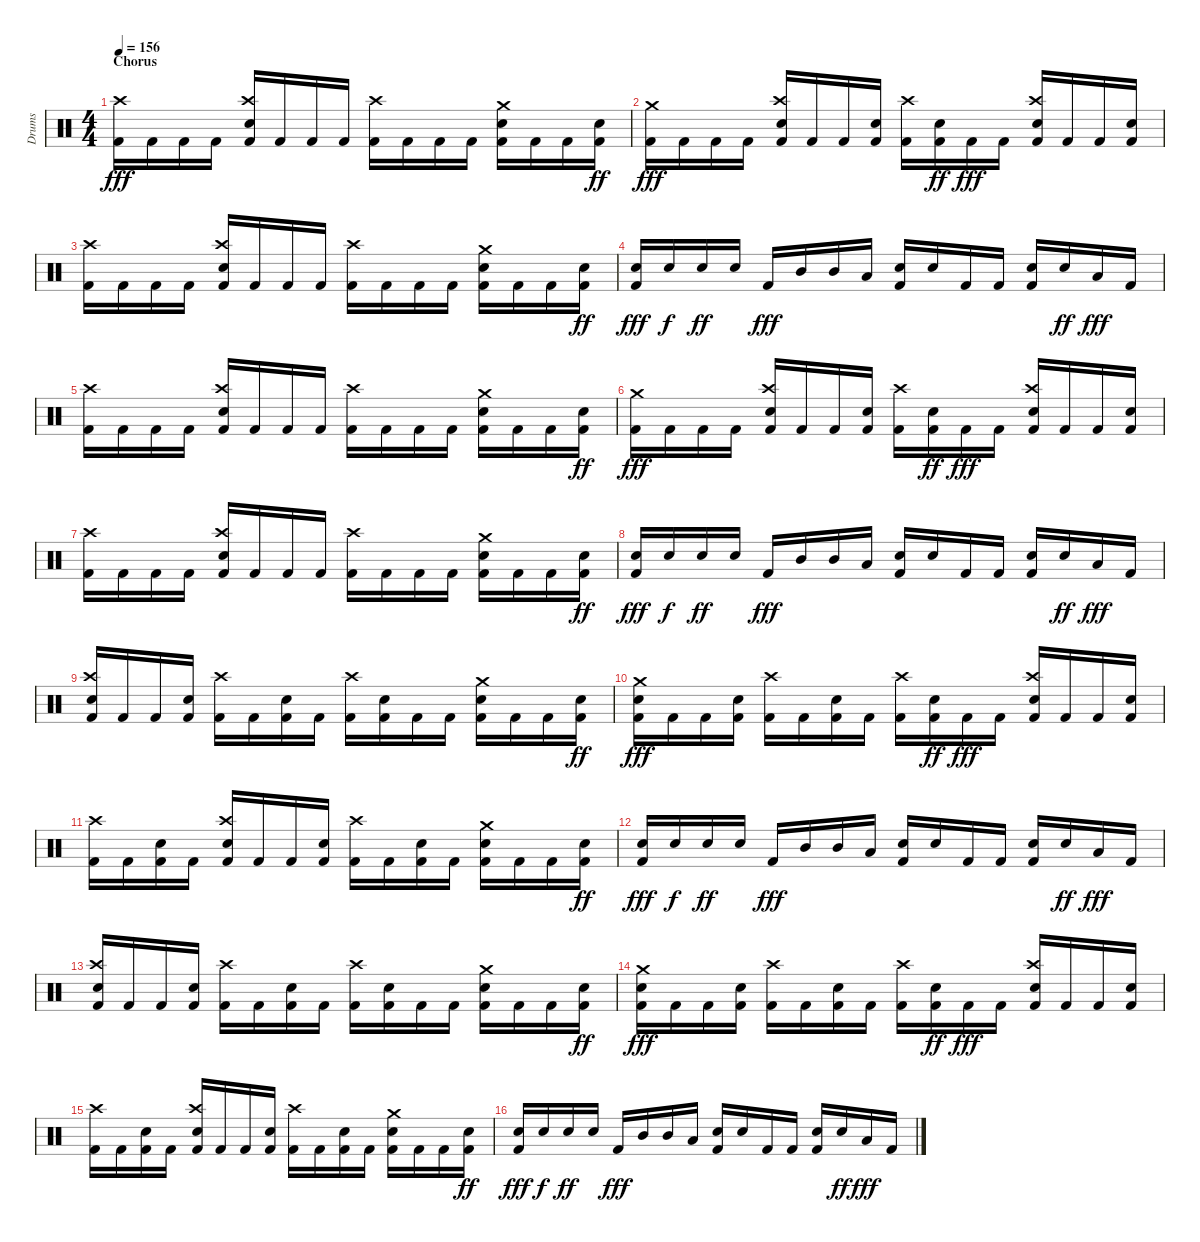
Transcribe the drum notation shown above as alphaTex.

\track ("Drums" "Drums") {instrument percussion}
\staff {score}
\articulation defaults
\ts (4 4)
\section ("" "Chorus")
\tempo 156
\clef neutral
\ks c
("Kick (hit) 2" "Crash high (hit)").16{dy fff} "Kick (hit) 2".16 "Kick (hit) 2".16 "Kick (hit) 2".16 ("Kick (hit) 2" "Snare (hit) 2" "Crash high (hit)").16 "Kick (hit) 2".16 "Kick (hit) 2".16 "Kick (hit) 2".16 ("Kick (hit) 2" "Crash high (hit)").16 "Kick (hit) 2".16 "Kick (hit) 2".16 "Kick (hit) 2".16 ("Kick (hit) 2" "Snare (hit) 2" "Crash medium (hit)").16 "Kick (hit) 2".16 "Kick (hit) 2".16 ("Kick (hit) 2" "Snare (hit) 2").16{dy ff} |
("Kick (hit) 2" "Crash medium (hit)").16{dy fff} "Kick (hit) 2".16 "Kick (hit) 2".16 "Kick (hit) 2".16 ("Kick (hit) 2" "Snare (hit) 2" "Crash high (hit)").16 "Kick (hit) 2".16 "Kick (hit) 2".16 ("Kick (hit) 2" "Snare (hit) 2").16 ("Kick (hit) 2" "Crash high (hit)").16 ("Kick (hit) 2" "Snare (hit) 2").16{dy ff} "Kick (hit) 2".16{dy fff} "Kick (hit) 2".16 ("Kick (hit) 2" "Snare (hit) 2" "Crash high (hit)").16 "Kick (hit) 2".16 "Kick (hit) 2".16 ("Kick (hit) 2" "Snare (hit) 2").16 |
("Kick (hit) 2" "Crash high (hit)").16 "Kick (hit) 2".16 "Kick (hit) 2".16 "Kick (hit) 2".16 ("Kick (hit) 2" "Snare (hit) 2" "Crash high (hit)").16 "Kick (hit) 2".16 "Kick (hit) 2".16 "Kick (hit) 2".16 ("Kick (hit) 2" "Crash high (hit)").16 "Kick (hit) 2".16 "Kick (hit) 2".16 "Kick (hit) 2".16 ("Kick (hit) 2" "Snare (hit) 2" "Crash medium (hit)").16 "Kick (hit) 2".16 "Kick (hit) 2".16 ("Kick (hit) 2" "Snare (hit) 2").16{dy ff} |
("Kick (hit) 2" "Snare (hit) 2").16{dy fff} "Snare (hit) 2".16{dy f} "Snare (hit) 2".16{dy ff} "Snare (hit) 2".16 "Kick (hit) 2".16{dy fff} "Mid Tom (hit)".16 "Mid Tom (hit)".16 "Low Tom (hit)".16 ("Kick (hit) 2" "Snare (hit) 2").16 "Snare (hit) 2".16 "Kick (hit) 2".16 "Kick (hit) 2".16 ("Kick (hit) 2" "Snare (hit) 2").16 "Snare (hit) 2".16{dy ff} "Low Tom (hit)".16{dy fff} "Kick (hit) 2".16 |
("Kick (hit) 2" "Crash high (hit)").16 "Kick (hit) 2".16 "Kick (hit) 2".16 "Kick (hit) 2".16 ("Kick (hit) 2" "Snare (hit) 2" "Crash high (hit)").16 "Kick (hit) 2".16 "Kick (hit) 2".16 "Kick (hit) 2".16 ("Kick (hit) 2" "Crash high (hit)").16 "Kick (hit) 2".16 "Kick (hit) 2".16 "Kick (hit) 2".16 ("Kick (hit) 2" "Snare (hit) 2" "Crash medium (hit)").16 "Kick (hit) 2".16 "Kick (hit) 2".16 ("Kick (hit) 2" "Snare (hit) 2").16{dy ff} |
("Kick (hit) 2" "Crash medium (hit)").16{dy fff} "Kick (hit) 2".16 "Kick (hit) 2".16 "Kick (hit) 2".16 ("Kick (hit) 2" "Snare (hit) 2" "Crash high (hit)").16 "Kick (hit) 2".16 "Kick (hit) 2".16 ("Kick (hit) 2" "Snare (hit) 2").16 ("Kick (hit) 2" "Crash high (hit)").16 ("Kick (hit) 2" "Snare (hit) 2").16{dy ff} "Kick (hit) 2".16{dy fff} "Kick (hit) 2".16 ("Kick (hit) 2" "Snare (hit) 2" "Crash high (hit)").16 "Kick (hit) 2".16 "Kick (hit) 2".16 ("Kick (hit) 2" "Snare (hit) 2").16 |
("Kick (hit) 2" "Crash high (hit)").16 "Kick (hit) 2".16 "Kick (hit) 2".16 "Kick (hit) 2".16 ("Kick (hit) 2" "Snare (hit) 2" "Crash high (hit)").16 "Kick (hit) 2".16 "Kick (hit) 2".16 "Kick (hit) 2".16 ("Kick (hit) 2" "Crash high (hit)").16 "Kick (hit) 2".16 "Kick (hit) 2".16 "Kick (hit) 2".16 ("Kick (hit) 2" "Snare (hit) 2" "Crash medium (hit)").16 "Kick (hit) 2".16 "Kick (hit) 2".16 ("Kick (hit) 2" "Snare (hit) 2").16{dy ff} |
("Kick (hit) 2" "Snare (hit) 2").16{dy fff} "Snare (hit) 2".16{dy f} "Snare (hit) 2".16{dy ff} "Snare (hit) 2".16 "Kick (hit) 2".16{dy fff} "Mid Tom (hit)".16 "Mid Tom (hit)".16 "Low Tom (hit)".16 ("Kick (hit) 2" "Snare (hit) 2").16 "Snare (hit) 2".16 "Kick (hit) 2".16 "Kick (hit) 2".16 ("Kick (hit) 2" "Snare (hit) 2").16 "Snare (hit) 2".16{dy ff} "Low Tom (hit)".16{dy fff} "Kick (hit) 2".16 |
("Kick (hit) 2" "Snare (hit) 2" "Crash high (hit)").16 "Kick (hit) 2".16 "Kick (hit) 2".16 ("Kick (hit) 2" "Snare (hit) 2").16 ("Kick (hit) 2" "Crash high (hit)").16 "Kick (hit) 2".16 ("Kick (hit) 2" "Snare (hit) 2").16 "Kick (hit) 2".16 ("Kick (hit) 2" "Crash high (hit)").16 ("Kick (hit) 2" "Snare (hit) 2").16 "Kick (hit) 2".16 "Kick (hit) 2".16 ("Kick (hit) 2" "Snare (hit) 2" "Crash medium (hit)").16 "Kick (hit) 2".16 "Kick (hit) 2".16 ("Kick (hit) 2" "Snare (hit) 2").16{dy ff} |
("Kick (hit) 2" "Snare (hit) 2" "Crash medium (hit)").16{dy fff} "Kick (hit) 2".16 "Kick (hit) 2".16 ("Kick (hit) 2" "Snare (hit) 2").16 ("Kick (hit) 2" "Crash high (hit)").16 "Kick (hit) 2".16 ("Kick (hit) 2" "Snare (hit) 2").16 "Kick (hit) 2".16 ("Kick (hit) 2" "Crash high (hit)").16 ("Kick (hit) 2" "Snare (hit) 2").16{dy ff} "Kick (hit) 2".16{dy fff} "Kick (hit) 2".16 ("Kick (hit) 2" "Snare (hit) 2" "Crash high (hit)").16 "Kick (hit) 2".16 "Kick (hit) 2".16 ("Kick (hit) 2" "Snare (hit) 2").16 |
("Kick (hit) 2" "Crash high (hit)").16 "Kick (hit) 2".16 ("Kick (hit) 2" "Snare (hit) 2").16 "Kick (hit) 2".16 ("Kick (hit) 2" "Snare (hit) 2" "Crash high (hit)").16 "Kick (hit) 2".16 "Kick (hit) 2".16 ("Kick (hit) 2" "Snare (hit) 2").16 ("Kick (hit) 2" "Crash high (hit)").16 "Kick (hit) 2".16 ("Kick (hit) 2" "Snare (hit) 2").16 "Kick (hit) 2".16 ("Kick (hit) 2" "Snare (hit) 2" "Crash medium (hit)").16 "Kick (hit) 2".16 "Kick (hit) 2".16 ("Kick (hit) 2" "Snare (hit) 2").16{dy ff} |
("Kick (hit) 2" "Snare (hit) 2").16{dy fff} "Snare (hit) 2".16{dy f} "Snare (hit) 2".16{dy ff} "Snare (hit) 2".16 "Kick (hit) 2".16{dy fff} "Mid Tom (hit)".16 "Mid Tom (hit)".16 "Low Tom (hit)".16 ("Kick (hit) 2" "Snare (hit) 2").16 "Snare (hit) 2".16 "Kick (hit) 2".16 "Kick (hit) 2".16 ("Kick (hit) 2" "Snare (hit) 2").16 "Snare (hit) 2".16{dy ff} "Low Tom (hit)".16{dy fff} "Kick (hit) 2".16 |
("Kick (hit) 2" "Snare (hit) 2" "Crash high (hit)").16 "Kick (hit) 2".16 "Kick (hit) 2".16 ("Kick (hit) 2" "Snare (hit) 2").16 ("Kick (hit) 2" "Crash high (hit)").16 "Kick (hit) 2".16 ("Kick (hit) 2" "Snare (hit) 2").16 "Kick (hit) 2".16 ("Kick (hit) 2" "Crash high (hit)").16 ("Kick (hit) 2" "Snare (hit) 2").16 "Kick (hit) 2".16 "Kick (hit) 2".16 ("Kick (hit) 2" "Snare (hit) 2" "Crash medium (hit)").16 "Kick (hit) 2".16 "Kick (hit) 2".16 ("Kick (hit) 2" "Snare (hit) 2").16{dy ff} |
("Kick (hit) 2" "Snare (hit) 2" "Crash medium (hit)").16{dy fff} "Kick (hit) 2".16 "Kick (hit) 2".16 ("Kick (hit) 2" "Snare (hit) 2").16 ("Kick (hit) 2" "Crash high (hit)").16 "Kick (hit) 2".16 ("Kick (hit) 2" "Snare (hit) 2").16 "Kick (hit) 2".16 ("Kick (hit) 2" "Crash high (hit)").16 ("Kick (hit) 2" "Snare (hit) 2").16{dy ff} "Kick (hit) 2".16{dy fff} "Kick (hit) 2".16 ("Kick (hit) 2" "Snare (hit) 2" "Crash high (hit)").16 "Kick (hit) 2".16 "Kick (hit) 2".16 ("Kick (hit) 2" "Snare (hit) 2").16 |
("Kick (hit) 2" "Crash high (hit)").16 "Kick (hit) 2".16 ("Kick (hit) 2" "Snare (hit) 2").16 "Kick (hit) 2".16 ("Kick (hit) 2" "Snare (hit) 2" "Crash high (hit)").16 "Kick (hit) 2".16 "Kick (hit) 2".16 ("Kick (hit) 2" "Snare (hit) 2").16 ("Kick (hit) 2" "Crash high (hit)").16 "Kick (hit) 2".16 ("Kick (hit) 2" "Snare (hit) 2").16 "Kick (hit) 2".16 ("Kick (hit) 2" "Snare (hit) 2" "Crash medium (hit)").16 "Kick (hit) 2".16 "Kick (hit) 2".16 ("Kick (hit) 2" "Snare (hit) 2").16{dy ff} |
("Kick (hit) 2" "Snare (hit) 2").16{dy fff} "Snare (hit) 2".16{dy f} "Snare (hit) 2".16{dy ff} "Snare (hit) 2".16 "Kick (hit) 2".16{dy fff} "Mid Tom (hit)".16 "Mid Tom (hit)".16 "Low Tom (hit)".16 ("Kick (hit) 2" "Snare (hit) 2").16 "Snare (hit) 2".16 "Kick (hit) 2".16 "Kick (hit) 2".16 ("Kick (hit) 2" "Snare (hit) 2").16 "Snare (hit) 2".16{dy ff} "Low Tom (hit)".16{dy fff} "Kick (hit) 2".16
